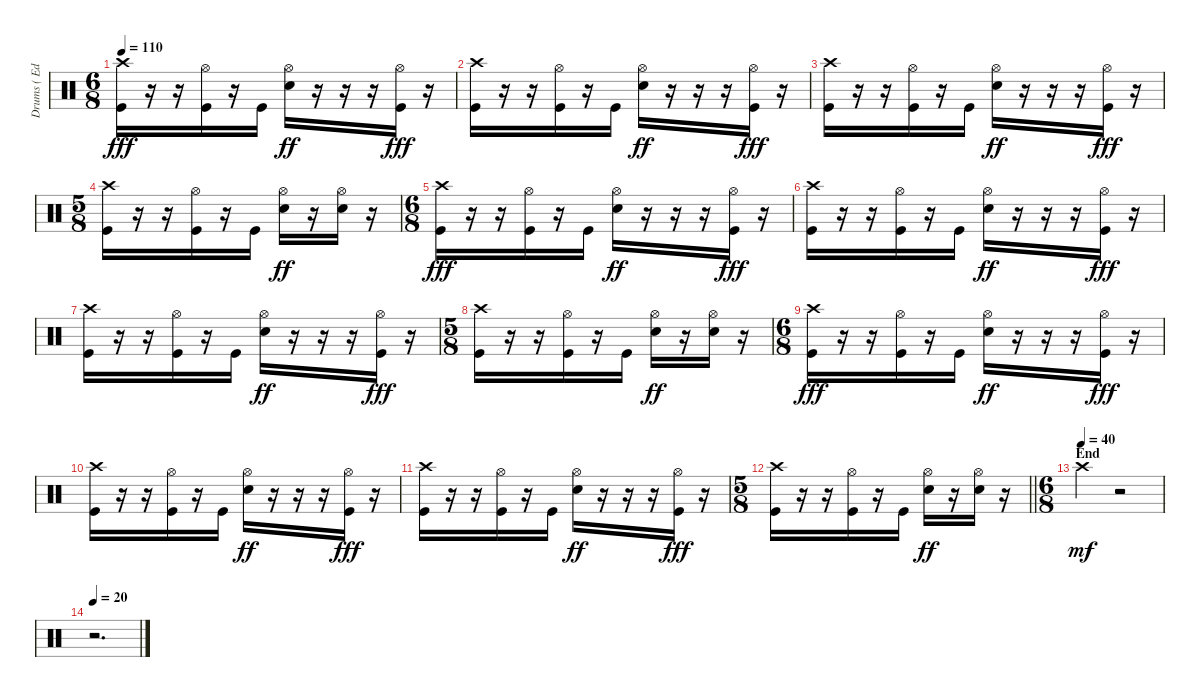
\track ("Drums ( Edward O'Brien )" "Drums ( Ed") {instrument percussion}
\staff {score}
\articulation defaults
\ts (6 8)
\tempo 110
\clef neutral
\ks c
("Crash high (hit)" "Kick (hit)").16{dy fff} r.16 r.16 ("Hi-Hat (open)" "Kick (hit)").16 r.16 "Kick (hit)".16 ("Hi-Hat (open)" "Electric Snare (hit)").16{dy ff} r.16 r.16 r.16 ("Hi-Hat (open)" "Kick (hit)").16{dy fff} r.16 |
("Crash high (hit)" "Kick (hit)").16 r.16 r.16 ("Hi-Hat (open)" "Kick (hit)").16 r.16 "Kick (hit)".16 ("Hi-Hat (open)" "Electric Snare (hit)").16{dy ff} r.16 r.16 r.16 ("Hi-Hat (open)" "Kick (hit)").16{dy fff} r.16 |
("Crash high (hit)" "Kick (hit)").16 r.16 r.16 ("Hi-Hat (open)" "Kick (hit)").16 r.16 "Kick (hit)".16 ("Hi-Hat (open)" "Electric Snare (hit)").16{dy ff} r.16 r.16 r.16 ("Hi-Hat (open)" "Kick (hit)").16{dy fff} r.16 |
\ts (5 8)
("Crash high (hit)" "Kick (hit)").16 r.16 r.16 ("Hi-Hat (open)" "Kick (hit)").16 r.16 "Kick (hit)".16 ("Hi-Hat (open)" "Electric Snare (hit)").16{dy ff} r.16 ("Hi-Hat (open)" "Electric Snare (hit)").16 r.16 |
\ts (6 8)
("Crash high (hit)" "Kick (hit)").16{dy fff} r.16 r.16 ("Hi-Hat (open)" "Kick (hit)").16 r.16 "Kick (hit)".16 ("Hi-Hat (open)" "Electric Snare (hit)").16{dy ff} r.16 r.16 r.16 ("Hi-Hat (open)" "Kick (hit)").16{dy fff} r.16 |
("Crash high (hit)" "Kick (hit)").16 r.16 r.16 ("Hi-Hat (open)" "Kick (hit)").16 r.16 "Kick (hit)".16 ("Hi-Hat (open)" "Electric Snare (hit)").16{dy ff} r.16 r.16 r.16 ("Hi-Hat (open)" "Kick (hit)").16{dy fff} r.16 |
("Crash high (hit)" "Kick (hit)").16 r.16 r.16 ("Hi-Hat (open)" "Kick (hit)").16 r.16 "Kick (hit)".16 ("Hi-Hat (open)" "Electric Snare (hit)").16{dy ff} r.16 r.16 r.16 ("Hi-Hat (open)" "Kick (hit)").16{dy fff} r.16 |
\ts (5 8)
("Crash high (hit)" "Kick (hit)").16 r.16 r.16 ("Hi-Hat (open)" "Kick (hit)").16 r.16 "Kick (hit)".16 ("Hi-Hat (open)" "Electric Snare (hit)").16{dy ff} r.16 ("Hi-Hat (open)" "Electric Snare (hit)").16 r.16 |
\ts (6 8)
("Crash high (hit)" "Kick (hit)").16{dy fff} r.16 r.16 ("Hi-Hat (open)" "Kick (hit)").16 r.16 "Kick (hit)".16 ("Hi-Hat (open)" "Electric Snare (hit)").16{dy ff} r.16 r.16 r.16 ("Hi-Hat (open)" "Kick (hit)").16{dy fff} r.16 |
("Crash high (hit)" "Kick (hit)").16 r.16 r.16 ("Hi-Hat (open)" "Kick (hit)").16 r.16 "Kick (hit)".16 ("Hi-Hat (open)" "Electric Snare (hit)").16{dy ff} r.16 r.16 r.16 ("Hi-Hat (open)" "Kick (hit)").16{dy fff} r.16 |
("Crash high (hit)" "Kick (hit)").16 r.16 r.16 ("Hi-Hat (open)" "Kick (hit)").16 r.16 "Kick (hit)".16 ("Hi-Hat (open)" "Electric Snare (hit)").16{dy ff} r.16 r.16 r.16 ("Hi-Hat (open)" "Kick (hit)").16{dy fff} r.16 |
\ts (5 8)
\barLineRight lightlight
("Crash high (hit)" "Kick (hit)").16 r.16 r.16 ("Hi-Hat (open)" "Kick (hit)").16 r.16 "Kick (hit)".16 ("Hi-Hat (open)" "Electric Snare (hit)").16{dy ff} r.16 ("Hi-Hat (open)" "Electric Snare (hit)").16 r.16 |
\ts (6 8)
\section ("" "End")
\tempo (40)
"Crash high (hit)".4{dy mf} r.2 |
\tempo 20
r.2{d}
